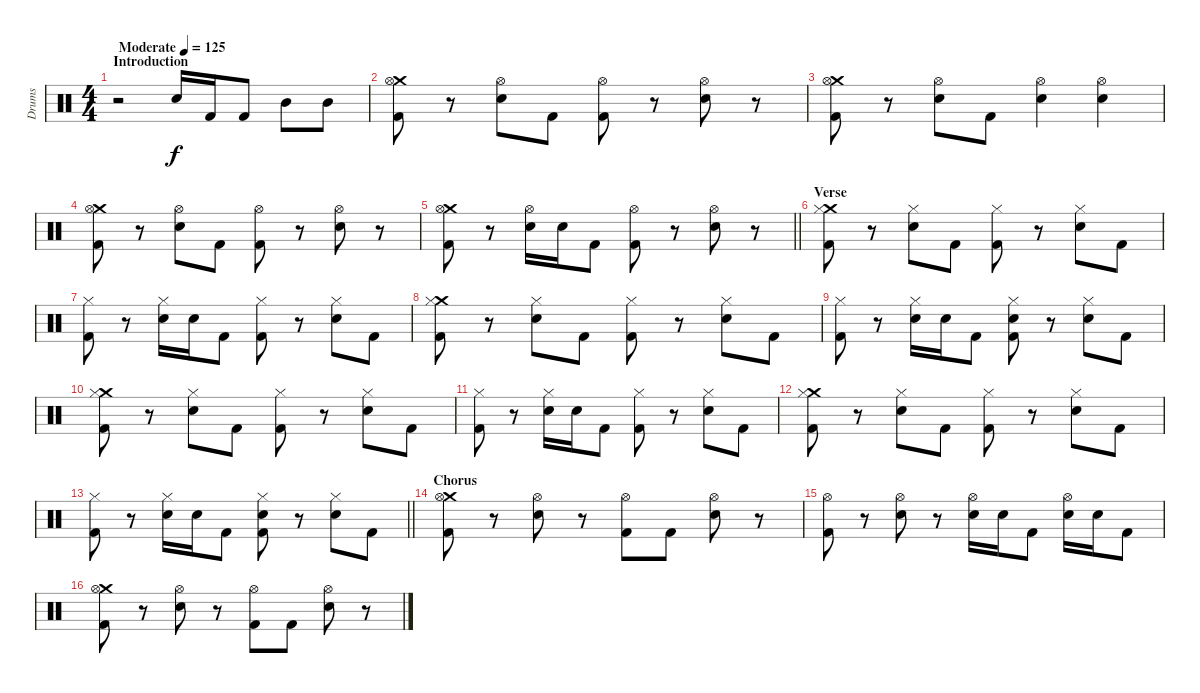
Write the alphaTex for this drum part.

\track ("Drums" "Drums") {instrument percussion}
\staff {score}
\articulation defaults
\ts (4 4)
\section ("" "Introduction")
\tempo (125 "Moderate")
\clef neutral
\ks c
r.2{dy f} "Electric Snare (hit)".16 "Kick (hit) 2".16 "Kick (hit) 2".8 "Mid Tom (hit)".8 "Mid Tom (hit)".8 |
("Crash medium (hit)" "Hi-Hat (open)" "Kick (hit) 2").8 r.8 ("Hi-Hat (open)" "Electric Snare (hit)").8 "Kick (hit) 2".8 ("Hi-Hat (open)" "Kick (hit) 2").8 r.8 ("Hi-Hat (open)" "Electric Snare (hit)").8 r.8 |
("Crash medium (hit)" "Hi-Hat (open)" "Kick (hit) 2").8 r.8 ("Hi-Hat (open)" "Electric Snare (hit)").8 "Kick (hit) 2".8 ("Hi-Hat (open)" "Electric Snare (hit)").4 ("Hi-Hat (open)" "Electric Snare (hit)").4 |
("Crash medium (hit)" "Hi-Hat (open)" "Kick (hit) 2").8 r.8 ("Hi-Hat (open)" "Electric Snare (hit)").8 "Kick (hit) 2".8 ("Hi-Hat (open)" "Kick (hit) 2").8 r.8 ("Hi-Hat (open)" "Electric Snare (hit)").8 r.8 |
\barLineRight lightlight
("Crash medium (hit)" "Hi-Hat (open)" "Kick (hit) 2").8 r.8 ("Hi-Hat (open)" "Electric Snare (hit)").16 "Electric Snare (hit)".16 "Kick (hit) 2".8 ("Hi-Hat (open)" "Kick (hit) 2").8 r.8 ("Hi-Hat (open)" "Electric Snare (hit)").8 r.8 |
\section ("" "Verse")
("Crash medium (hit)" "Hi-Hat (closed)" "Kick (hit) 2").8 r.8 ("Hi-Hat (closed)" "Electric Snare (hit)").8 "Kick (hit) 2".8 ("Hi-Hat (closed)" "Kick (hit) 2").8 r.8 ("Hi-Hat (closed)" "Electric Snare (hit)").8 "Kick (hit) 2".8 |
("Hi-Hat (closed)" "Kick (hit) 2").8 r.8 ("Hi-Hat (closed)" "Electric Snare (hit)").16 "Electric Snare (hit)".16 "Kick (hit) 2".8 ("Hi-Hat (closed)" "Kick (hit) 2").8 r.8 ("Hi-Hat (closed)" "Electric Snare (hit)").8 "Kick (hit) 2".8 |
("Crash medium (hit)" "Hi-Hat (closed)" "Kick (hit) 2").8 r.8 ("Hi-Hat (closed)" "Electric Snare (hit)").8 "Kick (hit) 2".8 ("Hi-Hat (closed)" "Kick (hit) 2").8 r.8 ("Hi-Hat (closed)" "Electric Snare (hit)").8 "Kick (hit) 2".8 |
("Hi-Hat (closed)" "Kick (hit) 2").8 r.8 ("Hi-Hat (closed)" "Electric Snare (hit)").16 "Electric Snare (hit)".16 "Kick (hit) 2".8 ("Hi-Hat (closed)" "Electric Snare (hit)" "Kick (hit) 2").8 r.8 ("Hi-Hat (closed)" "Electric Snare (hit)").8 "Kick (hit) 2".8 |
("Crash medium (hit)" "Hi-Hat (closed)" "Kick (hit) 2").8 r.8 ("Hi-Hat (closed)" "Electric Snare (hit)").8 "Kick (hit) 2".8 ("Hi-Hat (closed)" "Kick (hit) 2").8 r.8 ("Hi-Hat (closed)" "Electric Snare (hit)").8 "Kick (hit) 2".8 |
("Hi-Hat (closed)" "Kick (hit) 2").8 r.8 ("Hi-Hat (closed)" "Electric Snare (hit)").16 "Electric Snare (hit)".16 "Kick (hit) 2".8 ("Hi-Hat (closed)" "Kick (hit) 2").8 r.8 ("Hi-Hat (closed)" "Electric Snare (hit)").8 "Kick (hit) 2".8 |
("Crash medium (hit)" "Hi-Hat (closed)" "Kick (hit) 2").8 r.8 ("Hi-Hat (closed)" "Electric Snare (hit)").8 "Kick (hit) 2".8 ("Hi-Hat (closed)" "Kick (hit) 2").8 r.8 ("Hi-Hat (closed)" "Electric Snare (hit)").8 "Kick (hit) 2".8 |
\barLineRight lightlight
("Hi-Hat (closed)" "Kick (hit) 2").8 r.8 ("Hi-Hat (closed)" "Electric Snare (hit)").16 "Electric Snare (hit)".16 "Kick (hit) 2".8 ("Hi-Hat (closed)" "Electric Snare (hit)" "Kick (hit) 2").8 r.8 ("Hi-Hat (closed)" "Electric Snare (hit)").8 "Kick (hit) 2".8 |
\section ("" "Chorus")
("Crash medium (hit)" "Hi-Hat (open)" "Kick (hit) 2").8 r.8 ("Hi-Hat (open)" "Electric Snare (hit)").8 r.8 ("Hi-Hat (open)" "Kick (hit) 2").8 "Kick (hit) 2".8 ("Hi-Hat (open)" "Electric Snare (hit)").8 r.8 |
("Hi-Hat (open)" "Kick (hit) 2").8 r.8 ("Hi-Hat (open)" "Electric Snare (hit)").8 r.8 ("Hi-Hat (open)" "Electric Snare (hit)").16 "Electric Snare (hit)".16 "Kick (hit) 2".8 ("Hi-Hat (open)" "Electric Snare (hit)").16 "Electric Snare (hit)".16 "Kick (hit) 2".8 |
("Crash medium (hit)" "Hi-Hat (open)" "Kick (hit) 2").8 r.8 ("Hi-Hat (open)" "Electric Snare (hit)").8 r.8 ("Hi-Hat (open)" "Kick (hit) 2").8 "Kick (hit) 2".8 ("Hi-Hat (open)" "Electric Snare (hit)").8 r.8
